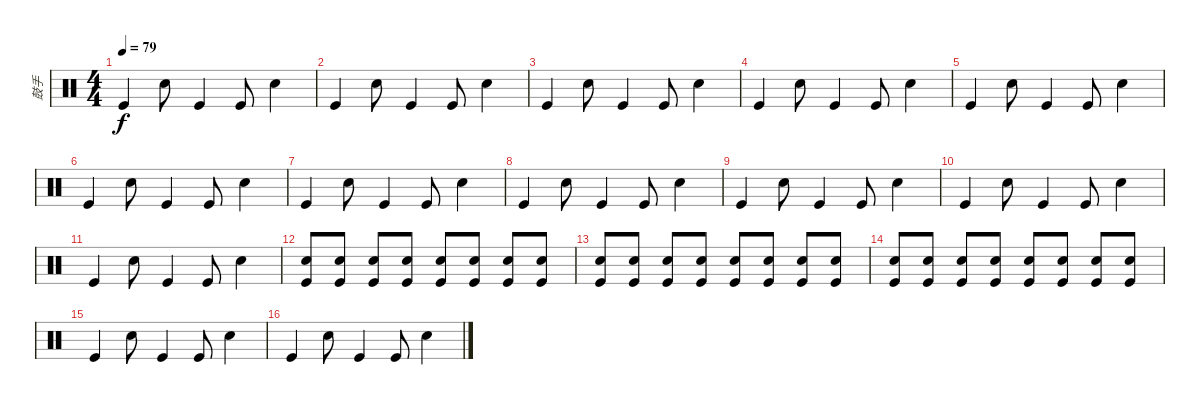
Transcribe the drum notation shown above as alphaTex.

\track ("鼓手" "鼓手") {instrument percussion}
\staff {score}
\articulation defaults
\ts (4 4)
\tempo 79
\clef neutral
\ks c "Kick (hit)".4{dy f} "Electric Snare (hit)".8 "Kick (hit)".4 "Kick (hit)".8 "Electric Snare (hit)".4
|
"Kick (hit)".4 "Snare (hit) 2".8 "Kick (hit)".4 "Kick (hit)".8 "Snare (hit) 2".4 |
"Kick (hit)".4 "Snare (hit) 2".8 "Kick (hit)".4 "Kick (hit)".8 "Snare (hit) 2".4 |
"Kick (hit)".4 "Snare (hit) 2".8 "Kick (hit)".4 "Kick (hit)".8 "Snare (hit) 2".4 |
"Kick (hit)".4 "Snare (hit) 2".8 "Kick (hit)".4 "Kick (hit)".8 "Snare (hit) 2".4 |
"Kick (hit)".4 "Snare (hit) 2".8 "Kick (hit)".4 "Kick (hit)".8 "Snare (hit) 2".4 |
"Kick (hit)".4 "Snare (hit) 2".8 "Kick (hit)".4 "Kick (hit)".8 "Snare (hit) 2".4 |
"Kick (hit)".4 "Snare (hit) 2".8 "Kick (hit)".4 "Kick (hit)".8 "Snare (hit) 2".4 |
"Kick (hit)".4 "Snare (hit) 2".8 "Kick (hit)".4 "Kick (hit)".8 "Snare (hit) 2".4 |
"Kick (hit)".4 "Snare (hit) 2".8 "Kick (hit)".4 "Kick (hit)".8 "Snare (hit) 2".4 |
"Kick (hit)".4 "Snare (hit) 2".8 "Kick (hit)".4 "Kick (hit)".8 "Snare (hit) 2".4 |
("Kick (hit)" "Snare (hit) 2").8 ("Snare (hit) 2" "Kick (hit)").8 ("Kick (hit)" "Snare (hit) 2").8 ("Kick (hit)" "Snare (hit) 2").8 ("Snare (hit) 2" "Kick (hit)").8 ("Kick (hit)" "Snare (hit) 2").8 ("Kick (hit)" "Snare (hit) 2").8 ("Kick (hit)" "Snare (hit) 2").8 |
("Kick (hit)" "Snare (hit) 2").8 ("Snare (hit) 2" "Kick (hit)").8 ("Kick (hit)" "Snare (hit) 2").8 ("Kick (hit)" "Snare (hit) 2").8 ("Snare (hit) 2" "Kick (hit)").8 ("Kick (hit)" "Snare (hit) 2").8 ("Kick (hit)" "Snare (hit) 2").8 ("Kick (hit)" "Snare (hit) 2").8 |
("Kick (hit)" "Snare (hit) 2").8 ("Snare (hit) 2" "Kick (hit)").8 ("Kick (hit)" "Snare (hit) 2").8 ("Kick (hit)" "Snare (hit) 2").8 ("Snare (hit) 2" "Kick (hit)").8 ("Kick (hit)" "Snare (hit) 2").8 ("Kick (hit)" "Snare (hit) 2").8 ("Kick (hit)" "Snare (hit) 2").8 |
"Kick (hit)".4 "Snare (hit) 2".8 "Kick (hit)".4 "Kick (hit)".8 "Snare (hit) 2".4 |
"Kick (hit)".4 "Snare (hit) 2".8 "Kick (hit)".4 "Kick (hit)".8 "Snare (hit) 2".4
